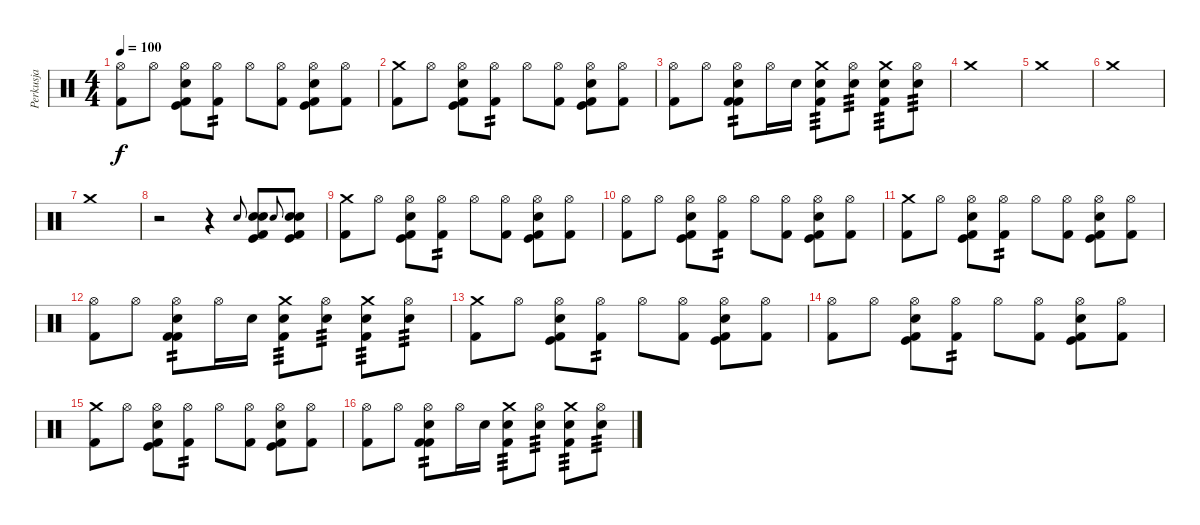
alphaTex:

\track ("Perkusja" "Perkusja") {instrument percussion}
\staff {score}
\articulation defaults
\ts (4 4)
\tempo 100
\clef neutral
\ks c
("Hi-Hat (open)" "Kick (hit) 2").8{dy f} "Hi-Hat (open)".8 ("Hi-Hat (open)" "Electric Snare (hit)" "Kick (hit) 2" "Kick (hit)").8 ("Hi-Hat (open)" "Kick (hit) 2").8{tp 2} "Hi-Hat (open)".8 ("Hi-Hat (open)" "Kick (hit) 2").8 ("Hi-Hat (open)" "Electric Snare (hit)" "Kick (hit) 2" "Kick (hit)").8 ("Hi-Hat (open)" "Kick (hit) 2").8 |
("Crash medium (hit)" "Kick (hit) 2").8 "Hi-Hat (open)".8 ("Hi-Hat (open)" "Electric Snare (hit)" "Kick (hit) 2" "Kick (hit)").8 ("Hi-Hat (open)" "Kick (hit) 2").8{tp 2} "Hi-Hat (open)".8 ("Hi-Hat (open)" "Kick (hit) 2").8 ("Hi-Hat (open)" "Electric Snare (hit)" "Kick (hit) 2" "Kick (hit)").8 ("Hi-Hat (open)" "Kick (hit) 2").8 |
("Hi-Hat (open)" "Kick (hit) 2").8 "Hi-Hat (open)".8 ("Hi-Hat (open)" "Electric Snare (hit)" "Kick (hit) 2" "Kick (hit) 2").8{tp 2} "Hi-Hat (open)".16 "Electric Snare (hit)".16 ("Crash medium (hit)" "Snare (hit) 2" "Kick (hit) 2").8{tp 3} ("Hi-Hat (open)" "Snare (hit) 2").8{tp 3} ("Crash medium (hit)" "Electric Snare (hit)" "Kick (hit) 2").8{tp 3} ("Hi-Hat (open)" "Electric Snare (hit)").8{tp 3} |
"Crash medium (hit)".1 |
"Crash medium (hit)".1 |
"Crash medium (hit)".1 |
"Crash medium (hit)".1 |
r.2 r.4 "Electric Snare (hit)".8{gr onbeat} ("Snare (hit) 2" "Electric Snare (hit)" "Kick (hit)" "Kick (hit) 2").8 "Electric Snare (hit)".8{gr onbeat} ("Snare (hit) 2" "Electric Snare (hit)" "Kick (hit)" "Kick (hit) 2").8 |
("Crash medium (hit)" "Kick (hit) 2").8 "Hi-Hat (open)".8 ("Hi-Hat (open)" "Electric Snare (hit)" "Kick (hit) 2" "Kick (hit)").8 ("Hi-Hat (open)" "Kick (hit) 2").8{tp 2} "Hi-Hat (open)".8 ("Hi-Hat (open)" "Kick (hit) 2").8 ("Hi-Hat (open)" "Electric Snare (hit)" "Kick (hit) 2" "Kick (hit)").8 ("Hi-Hat (open)" "Kick (hit) 2").8 |
("Hi-Hat (open)" "Kick (hit) 2").8 "Hi-Hat (open)".8 ("Hi-Hat (open)" "Electric Snare (hit)" "Kick (hit) 2" "Kick (hit)").8 ("Hi-Hat (open)" "Kick (hit) 2").8{tp 2} "Hi-Hat (open)".8 ("Hi-Hat (open)" "Kick (hit) 2").8 ("Hi-Hat (open)" "Electric Snare (hit)" "Kick (hit) 2" "Kick (hit)").8 ("Hi-Hat (open)" "Kick (hit) 2").8 |
("Crash medium (hit)" "Kick (hit) 2").8 "Hi-Hat (open)".8 ("Hi-Hat (open)" "Electric Snare (hit)" "Kick (hit) 2" "Kick (hit)").8 ("Hi-Hat (open)" "Kick (hit) 2").8{tp 2} "Hi-Hat (open)".8 ("Hi-Hat (open)" "Kick (hit) 2").8 ("Hi-Hat (open)" "Electric Snare (hit)" "Kick (hit) 2" "Kick (hit)").8 ("Hi-Hat (open)" "Kick (hit) 2").8 |
("Hi-Hat (open)" "Kick (hit) 2").8 "Hi-Hat (open)".8 ("Hi-Hat (open)" "Electric Snare (hit)" "Kick (hit) 2" "Kick (hit) 2").8{tp 2} "Hi-Hat (open)".16 "Electric Snare (hit)".16 ("Crash medium (hit)" "Snare (hit) 2" "Kick (hit) 2").8{tp 3} ("Hi-Hat (open)" "Snare (hit) 2").8{tp 3} ("Crash medium (hit)" "Electric Snare (hit)" "Kick (hit) 2").8{tp 3} ("Hi-Hat (open)" "Electric Snare (hit)").8{tp 3} |
("Crash medium (hit)" "Kick (hit) 2").8 "Hi-Hat (open)".8 ("Hi-Hat (open)" "Electric Snare (hit)" "Kick (hit) 2" "Kick (hit)").8 ("Hi-Hat (open)" "Kick (hit) 2").8{tp 2} "Hi-Hat (open)".8 ("Hi-Hat (open)" "Kick (hit) 2").8 ("Hi-Hat (open)" "Electric Snare (hit)" "Kick (hit) 2" "Kick (hit)").8 ("Hi-Hat (open)" "Kick (hit) 2").8 |
("Hi-Hat (open)" "Kick (hit) 2").8 "Hi-Hat (open)".8 ("Hi-Hat (open)" "Electric Snare (hit)" "Kick (hit) 2" "Kick (hit)").8 ("Hi-Hat (open)" "Kick (hit) 2").8{tp 2} "Hi-Hat (open)".8 ("Hi-Hat (open)" "Kick (hit) 2").8 ("Hi-Hat (open)" "Electric Snare (hit)" "Kick (hit) 2" "Kick (hit)").8 ("Hi-Hat (open)" "Kick (hit) 2").8 |
("Crash medium (hit)" "Kick (hit) 2").8 "Hi-Hat (open)".8 ("Hi-Hat (open)" "Electric Snare (hit)" "Kick (hit) 2" "Kick (hit)").8 ("Hi-Hat (open)" "Kick (hit) 2").8{tp 2} "Hi-Hat (open)".8 ("Hi-Hat (open)" "Kick (hit) 2").8 ("Hi-Hat (open)" "Electric Snare (hit)" "Kick (hit) 2" "Kick (hit)").8 ("Hi-Hat (open)" "Kick (hit) 2").8 |
("Hi-Hat (open)" "Kick (hit) 2").8 "Hi-Hat (open)".8 ("Hi-Hat (open)" "Electric Snare (hit)" "Kick (hit) 2" "Kick (hit) 2").8{tp 2} "Hi-Hat (open)".16 "Electric Snare (hit)".16 ("Crash medium (hit)" "Snare (hit) 2" "Kick (hit) 2").8{tp 3} ("Hi-Hat (open)" "Snare (hit) 2").8{tp 3} ("Crash medium (hit)" "Electric Snare (hit)" "Kick (hit) 2").8{tp 3} ("Hi-Hat (open)" "Electric Snare (hit)").8{tp 3}
